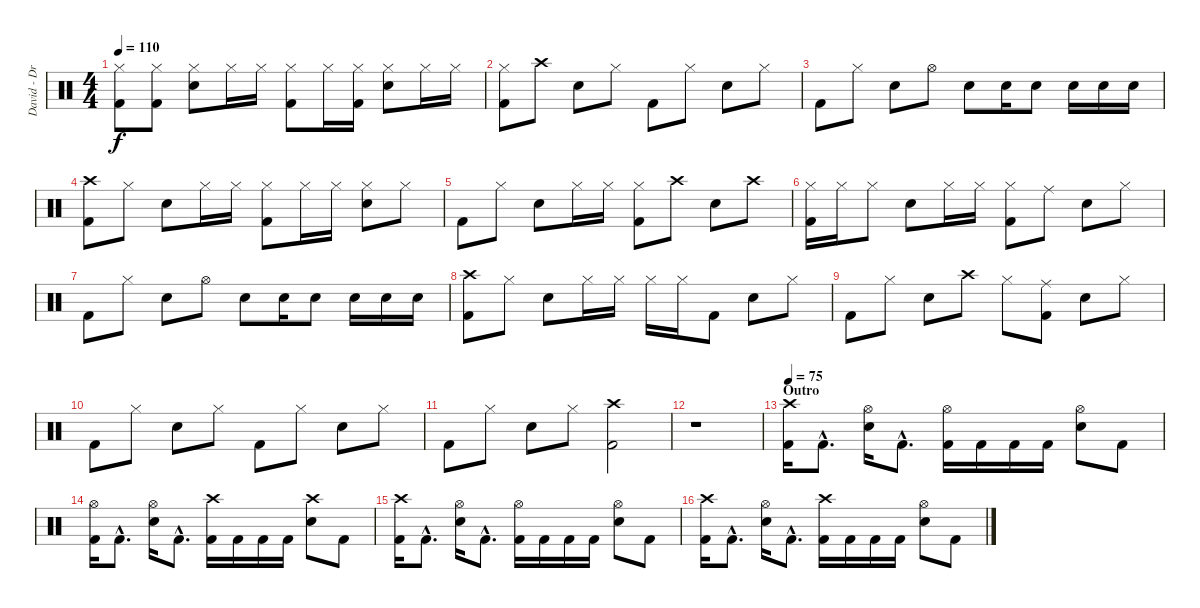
\track ("David - Drums" "David - Dr") {instrument percussion}
\staff {score}
\articulation defaults
\ts (4 4)
\tempo 110
\clef neutral
\ks c
("Hi-Hat (closed)" "Kick (hit) 2").8{dy f} ("Hi-Hat (closed)" "Kick (hit) 2").8 ("Hi-Hat (closed)" "Electric Snare (hit)").8 "Hi-Hat (closed)".16 "Hi-Hat (closed)".16 ("Hi-Hat (closed)" "Kick (hit) 2").8 "Hi-Hat (closed)".16 ("Hi-Hat (closed)" "Kick (hit) 2").16 ("Hi-Hat (closed)" "Electric Snare (hit)").8 "Hi-Hat (closed)".16 "Hi-Hat (closed)".16 |
("Hi-Hat (closed)" "Kick (hit) 2").8 "Crash high (hit)".8 "Electric Snare (hit)".8 "Hi-Hat (closed)".8 "Kick (hit) 2".8 "Hi-Hat (closed)".8 "Electric Snare (hit)".8 "Hi-Hat (closed)".8 |
"Kick (hit) 2".8 "Hi-Hat (closed)".8 "Electric Snare (hit)".8 "Hi-Hat (open)".8 "Electric Snare (hit)".8 "Electric Snare (hit)".16 "Electric Snare (hit)".8 "Electric Snare (hit)".16 "Electric Snare (hit)".16 "Electric Snare (hit)".16 |
("Crash high (hit)" "Kick (hit) 2").8 "Hi-Hat (closed)".8 "Electric Snare (hit)".8 "Hi-Hat (closed)".16 "Hi-Hat (closed)".16 ("Hi-Hat (closed)" "Kick (hit) 2").8 "Hi-Hat (closed)".16 "Hi-Hat (closed)".16 ("Hi-Hat (closed)" "Electric Snare (hit)").8 "Hi-Hat (closed)".8 |
"Kick (hit) 2".8 "Hi-Hat (closed)".8 "Electric Snare (hit)".8 "Hi-Hat (closed)".16 "Hi-Hat (closed)".16 ("Hi-Hat (closed)" "Kick (hit) 2").8 "Crash high (hit)".8 "Electric Snare (hit)".8 "Crash high (hit)".8 |
("Hi-Hat (closed)" "Kick (hit) 2").16 "Hi-Hat (closed)".16 "Hi-Hat (closed)".8 "Electric Snare (hit)".8 "Hi-Hat (closed)".16 "Hi-Hat (closed)".16 ("Hi-Hat (closed)" "Kick (hit) 2").8 "Ride (middle)".8 "Electric Snare (hit)".8 "Hi-Hat (closed)".8 |
"Kick (hit) 2".8 "Hi-Hat (closed)".8 "Electric Snare (hit)".8 "Hi-Hat (open)".8 "Electric Snare (hit)".8 "Electric Snare (hit)".16 "Electric Snare (hit)".8 "Electric Snare (hit)".16 "Electric Snare (hit)".16 "Electric Snare (hit)".16 |
("Crash high (hit)" "Kick (hit) 2").8 "Hi-Hat (closed)".8 "Electric Snare (hit)".8 "Hi-Hat (closed)".16 "Hi-Hat (closed)".16 "Hi-Hat (closed)".16 "Hi-Hat (closed)".16 "Kick (hit) 2".8 "Electric Snare (hit)".8 "Hi-Hat (closed)".8 |
"Kick (hit) 2".8 "Hi-Hat (closed)".8 "Electric Snare (hit)".8 "Crash high (hit)".8 "Hi-Hat (closed)".8 ("Ride (middle)" "Kick (hit) 2").8 "Electric Snare (hit)".8 "Hi-Hat (closed)".8 |
"Kick (hit) 2".8 "Hi-Hat (closed)".8 "Electric Snare (hit)".8 "Hi-Hat (closed)".8 "Kick (hit) 2".8 "Hi-Hat (closed)".8 "Electric Snare (hit)".8 "Hi-Hat (closed)".8 |
"Kick (hit) 2".8 "Hi-Hat (closed)".8 "Electric Snare (hit)".8 "Hi-Hat (closed)".8 ("Crash high (hit)" "Kick (hit) 2").2 |
r.1 |
\section ("" "Outro")
\tempo 75
("Crash high (hit)" "Kick (hit) 2").16 "Kick (hit) 2"{hac}.8{d} ("Hi-Hat (open)" "Electric Snare (hit)").16 "Kick (hit) 2"{hac}.8{d} ("Hi-Hat (open)" "Kick (hit) 2").16 "Kick (hit) 2".16 "Kick (hit) 2".16 "Kick (hit) 2".16 ("Hi-Hat (open)" "Electric Snare (hit)").8 "Kick (hit) 2".8 |
("Hi-Hat (open)" "Kick (hit) 2").16 "Kick (hit) 2"{hac}.8{d} ("Hi-Hat (open)" "Electric Snare (hit)").16 "Kick (hit) 2"{hac}.8{d} ("Crash high (hit)" "Kick (hit) 2").16 "Kick (hit) 2".16 "Kick (hit) 2".16 "Kick (hit) 2".16 ("Crash high (hit)" "Electric Snare (hit)").8 "Kick (hit) 2".8 |
("Crash high (hit)" "Kick (hit) 2").16 "Kick (hit) 2"{hac}.8{d} ("Hi-Hat (open)" "Electric Snare (hit)").16 "Kick (hit) 2"{hac}.8{d} ("Hi-Hat (open)" "Kick (hit) 2").16 "Kick (hit) 2".16 "Kick (hit) 2".16 "Kick (hit) 2".16 ("Hi-Hat (open)" "Electric Snare (hit)").8 "Kick (hit) 2".8 |
("Crash high (hit)" "Kick (hit) 2").16 "Kick (hit) 2"{hac}.8{d} ("Hi-Hat (open)" "Electric Snare (hit)").16 "Kick (hit) 2"{hac}.8{d} ("Crash high (hit)" "Kick (hit) 2").16 "Kick (hit) 2".16 "Kick (hit) 2".16 "Kick (hit) 2".16 ("Hi-Hat (open)" "Electric Snare (hit)").8 "Kick (hit) 2".8
